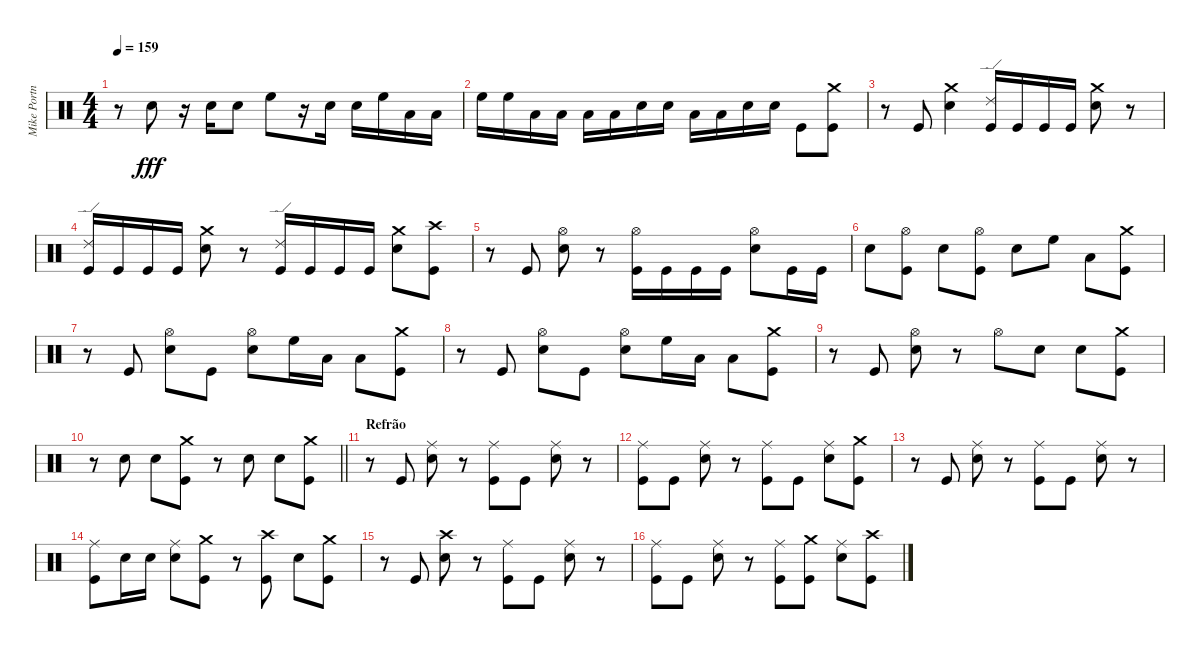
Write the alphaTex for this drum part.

\track ("Mike Portnoy" "Mike Portn") {instrument percussion}
\staff {score}
\articulation defaults
\ts (4 4)
\tempo 159
\clef neutral
\ks c
r.8{dy fff} "Electric Snare (hit)".8 r.16 "Electric Snare (hit)".16 "Electric Snare (hit)".8 "High Floor Tom (hit)".8 r.16 "Electric Snare (hit)".16 "Electric Snare (hit)".16 "High Floor Tom (hit)".16 "Low Tom (hit)".16 "Low Tom (hit)".16 |
"High Floor Tom (hit)".16 "High Floor Tom (hit)".16 "Low Tom (hit)".16 "Low Tom (hit)".16 "Low Floor Tom (hit)".16 "Low Floor Tom (hit)".16 "Electric Snare (hit)".16 "Electric Snare (hit)".16 "Low Floor Tom (hit)".16 "Low Floor Tom (hit)".16 "Electric Snare (hit)".16 "Electric Snare (hit)".16 "Kick (hit)".8 ("Crash medium (hit)" "Kick (hit)").8 |
r.8 "Kick (hit)".8 ("Crash medium (hit)" "Electric Snare (hit)").4 ("Ride (edge) 2" "Kick (hit)").16 "Kick (hit)".16 "Kick (hit)".16 "Kick (hit)".16 ("Crash medium (hit)" "Electric Snare (hit)").8 r.8 |
("Ride (edge) 2" "Kick (hit)").16 "Kick (hit)".16 "Kick (hit)".16 "Kick (hit)".16 ("Crash medium (hit)" "Electric Snare (hit)").8 r.8 ("Ride (edge) 2" "Kick (hit)").16 "Kick (hit)".16 "Kick (hit)".16 "Kick (hit)".16 ("Crash medium (hit)" "Electric Snare (hit)").8 ("Crash high (hit)" "Kick (hit)").8 |
r.8 "Kick (hit)".8 ("Hi-Hat (open)" "Electric Snare (hit)").8 r.8 ("Hi-Hat (open)" "Kick (hit)").16 "Kick (hit)".16 "Kick (hit)".16 "Kick (hit)".16 ("Hi-Hat (open)" "Electric Snare (hit)").8 "Kick (hit)".16 "Kick (hit)".16 |
"Electric Snare (hit)".8 ("Hi-Hat (open)" "Kick (hit)").8 "Electric Snare (hit)".8 ("Hi-Hat (open)" "Kick (hit)").8 "Electric Snare (hit)".8 "High Floor Tom (hit)".8 "Low Tom (hit)".8 ("Crash medium (hit)" "Kick (hit)").8 |
r.8 "Kick (hit)".8 ("Hi-Hat (open)" "Electric Snare (hit)").8 "Kick (hit)".8 ("Hi-Hat (open)" "Electric Snare (hit)").8 "High Floor Tom (hit)".16 "Low Tom (hit)".16 "Low Floor Tom (hit)".8 ("Crash medium (hit)" "Kick (hit)").8 |
r.8 "Kick (hit)".8 ("Hi-Hat (open)" "Electric Snare (hit)").8 "Kick (hit)".8 ("Hi-Hat (open)" "Electric Snare (hit)").8 "High Floor Tom (hit)".16 "Low Tom (hit)".16 "Low Floor Tom (hit)".8 ("Crash medium (hit)" "Kick (hit)").8 |
r.8 "Kick (hit)".8 ("Hi-Hat (open)" "Electric Snare (hit)").8 r.8 "Hi-Hat (open)".8 "Electric Snare (hit)".8 "Electric Snare (hit)".8 ("Crash medium (hit)" "Kick (hit)").8 |
\barLineRight lightlight
r.8 "Electric Snare (hit)".8 "Electric Snare (hit)".8 ("Crash medium (hit)" "Kick (hit)").8 r.8 "Electric Snare (hit)".8 "Electric Snare (hit)".8 ("Crash medium (hit)" "Kick (hit)").8 |
\section ("" "Refrão")
r.8 "Kick (hit)".8 ("Ride (middle)" "Electric Snare (hit)").8 r.8 ("Ride (middle)" "Kick (hit)").8 "Kick (hit)".8 ("Ride (middle)" "Electric Snare (hit)").8 r.8 |
("Ride (middle)" "Kick (hit)").8 "Kick (hit)".8 ("Ride (middle)" "Electric Snare (hit)").8 r.8 ("Ride (middle)" "Kick (hit)").8 "Kick (hit)".8 ("Ride (middle)" "Electric Snare (hit)").8 ("Crash medium (hit)" "Kick (hit)").8 |
r.8 "Kick (hit)".8 ("Ride (middle)" "Electric Snare (hit)").8 r.8 ("Ride (middle)" "Kick (hit)").8 "Kick (hit)".8 ("Ride (middle)" "Electric Snare (hit)").8 r.8 |
("Ride (middle)" "Kick (hit)").8 "Electric Snare (hit)".16 "Electric Snare (hit)".16 ("Ride (middle)" "Electric Snare (hit)").8 ("Crash medium (hit)" "Kick (hit)").8 r.8 ("Crash high (hit)" "Kick (hit)").8 "Electric Snare (hit)".8 ("Crash medium (hit)" "Kick (hit)").8 |
r.8 "Kick (hit)".8 ("Crash high (hit)" "Electric Snare (hit)").8 r.8 ("Ride (middle)" "Kick (hit)").8 "Kick (hit)".8 ("Ride (middle)" "Electric Snare (hit)").8 r.8 |
("Ride (middle)" "Kick (hit)").8 "Kick (hit)".8 ("Ride (middle)" "Electric Snare (hit)").8 r.8 ("Ride (middle)" "Kick (hit)").8 ("Crash medium (hit)" "Kick (hit)").8 ("Ride (middle)" "Electric Snare (hit)").8 ("Crash high (hit)" "Kick (hit)").8
